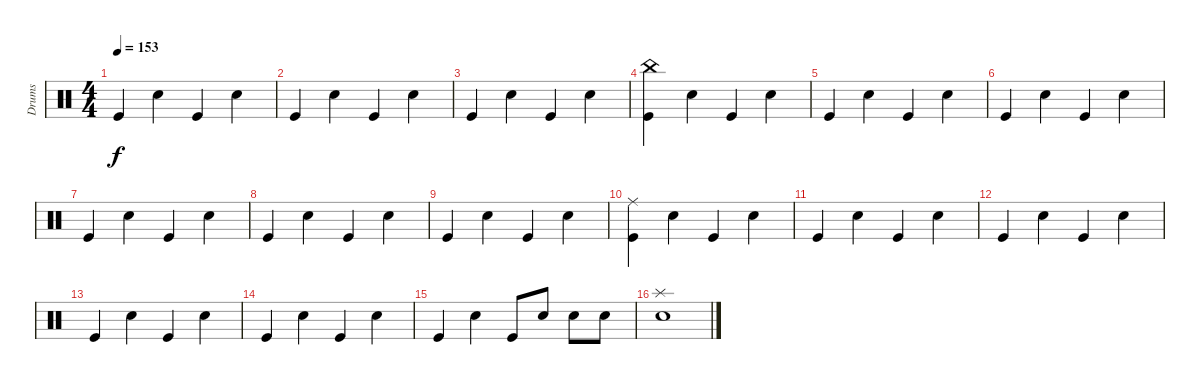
\track ("Drums" "Drums") {instrument percussion}
\staff {score}
\articulation defaults
\ts (4 4)
\tempo 153
\clef neutral
\ks c "Kick (hit)".4{dy f} "Snare (hit) 2".4 "Kick (hit)".4 "Snare (hit) 2".4
|
"Kick (hit)".4 "Snare (hit) 2".4 "Kick (hit)".4 "Snare (hit) 2".4 |
"Kick (hit)".4 "Snare (hit) 2".4 "Kick (hit)".4 "Snare (hit) 2".4 |
("China (hit)" "Kick (hit)").4 "Snare (hit) 2".4 "Kick (hit)".4 "Snare (hit) 2".4 |
"Kick (hit)".4 "Snare (hit) 2".4 "Kick (hit)".4 "Snare (hit) 2".4 |
"Kick (hit)".4 "Snare (hit) 2".4 "Kick (hit)".4 "Snare (hit) 2".4 |
"Kick (hit)".4 "Snare (hit) 2".4 "Kick (hit)".4 "Snare (hit) 2".4 |
"Kick (hit)".4 "Snare (hit) 2".4 "Kick (hit)".4 "Snare (hit) 2".4 |
"Kick (hit)".4 "Snare (hit) 2".4 "Kick (hit)".4 "Snare (hit) 2".4 |
("Ride (middle)" "Kick (hit)").4 "Snare (hit) 2".4 "Kick (hit)".4 "Snare (hit) 2".4 |
"Kick (hit)".4 "Snare (hit) 2".4 "Kick (hit)".4 "Snare (hit) 2".4 |
"Kick (hit)".4 "Snare (hit) 2".4 "Kick (hit)".4 "Snare (hit) 2".4 |
"Kick (hit)".4 "Snare (hit) 2".4 "Kick (hit)".4 "Snare (hit) 2".4 |
"Kick (hit)".4 "Snare (hit) 2".4 "Kick (hit)".4 "Snare (hit) 2".4 |
"Kick (hit)".4 "Snare (hit) 2".4 "Kick (hit)".8 "Snare (hit) 2".8 "Snare (hit) 2".8 "Snare (hit) 2".8 |
("Splash (hit)" "Snare (hit) 2").1
